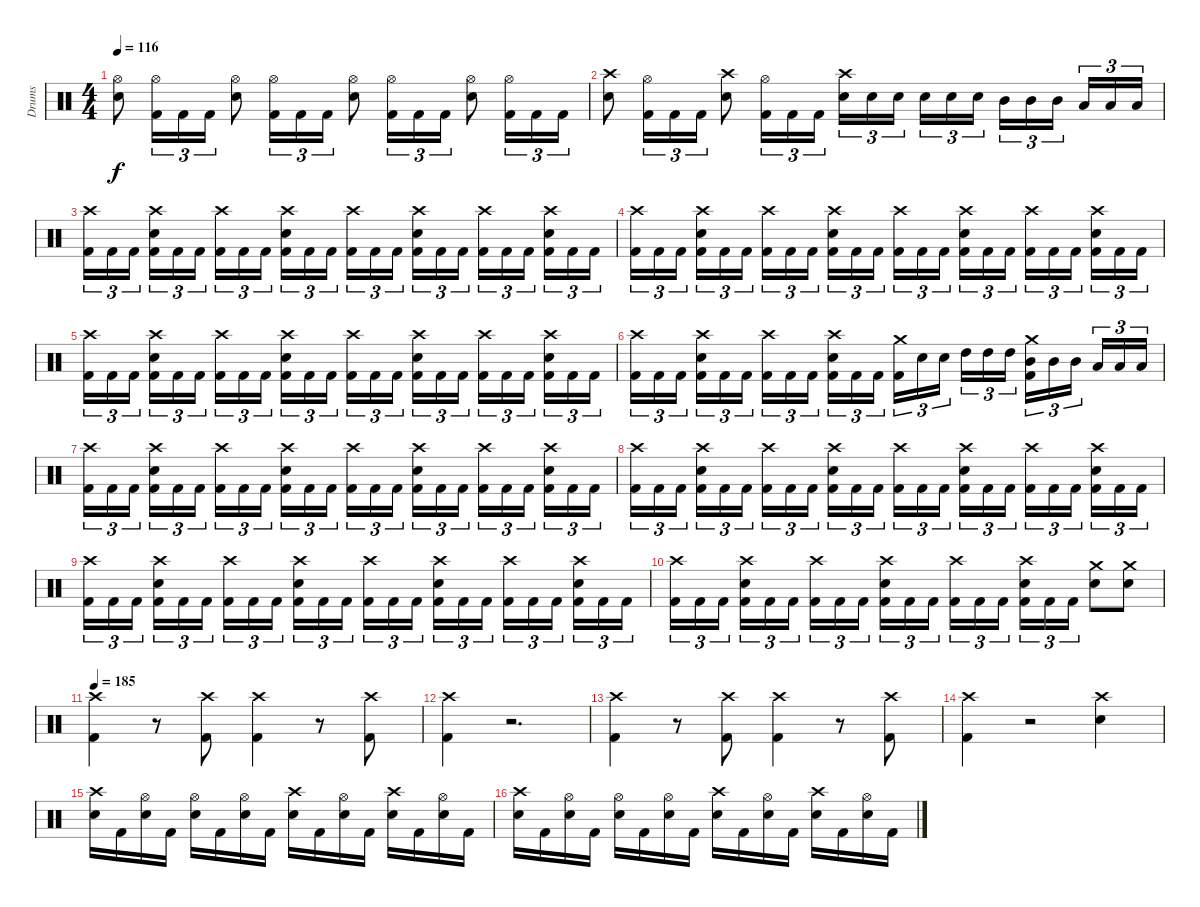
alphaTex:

\track ("Drums" "Drums") {instrument percussion}
\staff {score}
\articulation defaults
\ts (4 4)
\tempo 116
\clef neutral
\ks c
("Hi-Hat (open)" "Electric Snare (hit)").8{dy f} ("Hi-Hat (open)" "Kick (hit) 2").16{tu (3 2)} "Kick (hit) 2".16{tu (3 2)} "Kick (hit) 2".16{tu (3 2)} ("Hi-Hat (open)" "Electric Snare (hit)").8 ("Hi-Hat (open)" "Kick (hit) 2").16{tu (3 2)} "Kick (hit) 2".16{tu (3 2)} "Kick (hit) 2".16{tu (3 2)} ("Hi-Hat (open)" "Electric Snare (hit)").8 ("Hi-Hat (open)" "Kick (hit) 2").16{tu (3 2)} "Kick (hit) 2".16{tu (3 2)} "Kick (hit) 2".16{tu (3 2)} ("Hi-Hat (open)" "Electric Snare (hit)").8 ("Hi-Hat (open)" "Kick (hit) 2").16{tu (3 2)} "Kick (hit) 2".16{tu (3 2)} "Kick (hit) 2".16{tu (3 2)} |
("Crash high (hit)" "Electric Snare (hit)").8 ("Hi-Hat (open)" "Kick (hit) 2").16{tu (3 2)} "Kick (hit) 2".16{tu (3 2)} "Kick (hit) 2".16{tu (3 2)} ("Crash high (hit)" "Electric Snare (hit)").8 ("Hi-Hat (open)" "Kick (hit) 2").16{tu (3 2)} "Kick (hit) 2".16{tu (3 2)} "Kick (hit) 2".16{tu (3 2)} ("Crash high (hit)" "Electric Snare (hit)").16{tu (3 2)} "Electric Snare (hit)".16{tu (3 2)} "Electric Snare (hit)".16{tu (3 2)} "Electric Snare (hit)".16{tu (3 2)} "Electric Snare (hit)".16{tu (3 2)} "Electric Snare (hit)".16{tu (3 2)} "Mid Tom (hit)".16{tu (3 2)} "Mid Tom (hit)".16{tu (3 2)} "Mid Tom (hit)".16{tu (3 2)} "Low Tom (hit)".16{tu (3 2)} "Low Tom (hit)".16{tu (3 2)} "Low Tom (hit)".16{tu (3 2)} |
("Crash high (hit)" "Kick (hit) 2").16{tu (3 2)} "Kick (hit) 2".16{tu (3 2)} "Kick (hit) 2".16{tu (3 2)} ("Crash high (hit)" "Electric Snare (hit)" "Kick (hit) 2").16{tu (3 2)} "Kick (hit) 2".16{tu (3 2)} "Kick (hit) 2".16{tu (3 2)} ("Crash high (hit)" "Kick (hit) 2").16{tu (3 2)} "Kick (hit) 2".16{tu (3 2)} "Kick (hit) 2".16{tu (3 2)} ("Crash high (hit)" "Electric Snare (hit)" "Kick (hit) 2").16{tu (3 2)} "Kick (hit) 2".16{tu (3 2)} "Kick (hit) 2".16{tu (3 2)} ("Crash high (hit)" "Kick (hit) 2").16{tu (3 2)} "Kick (hit) 2".16{tu (3 2)} "Kick (hit) 2".16{tu (3 2)} ("Crash high (hit)" "Electric Snare (hit)" "Kick (hit) 2").16{tu (3 2)} "Kick (hit) 2".16{tu (3 2)} "Kick (hit) 2".16{tu (3 2)} ("Crash high (hit)" "Kick (hit) 2").16{tu (3 2)} "Kick (hit) 2".16{tu (3 2)} "Kick (hit) 2".16{tu (3 2)} ("Crash high (hit)" "Electric Snare (hit)" "Kick (hit) 2").16{tu (3 2)} "Kick (hit) 2".16{tu (3 2)} "Kick (hit) 2".16{tu (3 2)} |
("Crash high (hit)" "Kick (hit) 2").16{tu (3 2)} "Kick (hit) 2".16{tu (3 2)} "Kick (hit) 2".16{tu (3 2)} ("Crash high (hit)" "Electric Snare (hit)" "Kick (hit) 2").16{tu (3 2)} "Kick (hit) 2".16{tu (3 2)} "Kick (hit) 2".16{tu (3 2)} ("Crash high (hit)" "Kick (hit) 2").16{tu (3 2)} "Kick (hit) 2".16{tu (3 2)} "Kick (hit) 2".16{tu (3 2)} ("Crash high (hit)" "Electric Snare (hit)" "Kick (hit) 2").16{tu (3 2)} "Kick (hit) 2".16{tu (3 2)} "Kick (hit) 2".16{tu (3 2)} ("Crash high (hit)" "Kick (hit) 2").16{tu (3 2)} "Kick (hit) 2".16{tu (3 2)} "Kick (hit) 2".16{tu (3 2)} ("Crash high (hit)" "Electric Snare (hit)" "Kick (hit) 2").16{tu (3 2)} "Kick (hit) 2".16{tu (3 2)} "Kick (hit) 2".16{tu (3 2)} ("Crash high (hit)" "Kick (hit) 2").16{tu (3 2)} "Kick (hit) 2".16{tu (3 2)} "Kick (hit) 2".16{tu (3 2)} ("Crash high (hit)" "Electric Snare (hit)" "Kick (hit) 2").16{tu (3 2)} "Kick (hit) 2".16{tu (3 2)} "Kick (hit) 2".16{tu (3 2)} |
("Crash high (hit)" "Kick (hit) 2").16{tu (3 2)} "Kick (hit) 2".16{tu (3 2)} "Kick (hit) 2".16{tu (3 2)} ("Crash high (hit)" "Electric Snare (hit)" "Kick (hit) 2").16{tu (3 2)} "Kick (hit) 2".16{tu (3 2)} "Kick (hit) 2".16{tu (3 2)} ("Crash high (hit)" "Kick (hit) 2").16{tu (3 2)} "Kick (hit) 2".16{tu (3 2)} "Kick (hit) 2".16{tu (3 2)} ("Crash high (hit)" "Electric Snare (hit)" "Kick (hit) 2").16{tu (3 2)} "Kick (hit) 2".16{tu (3 2)} "Kick (hit) 2".16{tu (3 2)} ("Crash high (hit)" "Kick (hit) 2").16{tu (3 2)} "Kick (hit) 2".16{tu (3 2)} "Kick (hit) 2".16{tu (3 2)} ("Crash high (hit)" "Electric Snare (hit)" "Kick (hit) 2").16{tu (3 2)} "Kick (hit) 2".16{tu (3 2)} "Kick (hit) 2".16{tu (3 2)} ("Crash high (hit)" "Kick (hit) 2").16{tu (3 2)} "Kick (hit) 2".16{tu (3 2)} "Kick (hit) 2".16{tu (3 2)} ("Crash high (hit)" "Electric Snare (hit)" "Kick (hit) 2").16{tu (3 2)} "Kick (hit) 2".16{tu (3 2)} "Kick (hit) 2".16{tu (3 2)} |
("Crash high (hit)" "Kick (hit) 2").16{tu (3 2)} "Kick (hit) 2".16{tu (3 2)} "Kick (hit) 2".16{tu (3 2)} ("Crash high (hit)" "Electric Snare (hit)" "Kick (hit) 2").16{tu (3 2)} "Kick (hit) 2".16{tu (3 2)} "Kick (hit) 2".16{tu (3 2)} ("Crash high (hit)" "Kick (hit) 2").16{tu (3 2)} "Kick (hit) 2".16{tu (3 2)} "Kick (hit) 2".16{tu (3 2)} ("Crash high (hit)" "Electric Snare (hit)" "Kick (hit) 2").16{tu (3 2)} "Kick (hit) 2".16{tu (3 2)} "Kick (hit) 2".16{tu (3 2)} ("Crash medium (hit)" "Kick (hit) 2").16{tu (3 2)} "Electric Snare (hit)".16{tu (3 2)} "Electric Snare (hit)".16{tu (3 2)} "High Tom (hit)".16{tu (3 2)} "High Tom (hit)".16{tu (3 2)} "High Tom (hit)".16{tu (3 2)} ("Crash medium (hit)" "Mid Tom (hit)" "Kick (hit) 2").16{tu (3 2)} "Mid Tom (hit)".16{tu (3 2)} "Mid Tom (hit)".16{tu (3 2)} "Low Tom (hit)".16{tu (3 2)} "Low Tom (hit)".16{tu (3 2)} "Low Tom (hit)".16{tu (3 2)} |
("Crash high (hit)" "Kick (hit) 2").16{tu (3 2)} "Kick (hit) 2".16{tu (3 2)} "Kick (hit) 2".16{tu (3 2)} ("Crash high (hit)" "Electric Snare (hit)" "Kick (hit) 2").16{tu (3 2)} "Kick (hit) 2".16{tu (3 2)} "Kick (hit) 2".16{tu (3 2)} ("Crash high (hit)" "Kick (hit) 2").16{tu (3 2)} "Kick (hit) 2".16{tu (3 2)} "Kick (hit) 2".16{tu (3 2)} ("Crash high (hit)" "Electric Snare (hit)" "Kick (hit) 2").16{tu (3 2)} "Kick (hit) 2".16{tu (3 2)} "Kick (hit) 2".16{tu (3 2)} ("Crash high (hit)" "Kick (hit) 2").16{tu (3 2)} "Kick (hit) 2".16{tu (3 2)} "Kick (hit) 2".16{tu (3 2)} ("Crash high (hit)" "Electric Snare (hit)" "Kick (hit) 2").16{tu (3 2)} "Kick (hit) 2".16{tu (3 2)} "Kick (hit) 2".16{tu (3 2)} ("Crash high (hit)" "Kick (hit) 2").16{tu (3 2)} "Kick (hit) 2".16{tu (3 2)} "Kick (hit) 2".16{tu (3 2)} ("Crash high (hit)" "Electric Snare (hit)" "Kick (hit) 2").16{tu (3 2)} "Kick (hit) 2".16{tu (3 2)} "Kick (hit) 2".16{tu (3 2)} |
("Crash high (hit)" "Kick (hit) 2").16{tu (3 2)} "Kick (hit) 2".16{tu (3 2)} "Kick (hit) 2".16{tu (3 2)} ("Crash high (hit)" "Electric Snare (hit)" "Kick (hit) 2").16{tu (3 2)} "Kick (hit) 2".16{tu (3 2)} "Kick (hit) 2".16{tu (3 2)} ("Crash high (hit)" "Kick (hit) 2").16{tu (3 2)} "Kick (hit) 2".16{tu (3 2)} "Kick (hit) 2".16{tu (3 2)} ("Crash high (hit)" "Electric Snare (hit)" "Kick (hit) 2").16{tu (3 2)} "Kick (hit) 2".16{tu (3 2)} "Kick (hit) 2".16{tu (3 2)} ("Crash high (hit)" "Kick (hit) 2").16{tu (3 2)} "Kick (hit) 2".16{tu (3 2)} "Kick (hit) 2".16{tu (3 2)} ("Crash high (hit)" "Electric Snare (hit)" "Kick (hit) 2").16{tu (3 2)} "Kick (hit) 2".16{tu (3 2)} "Kick (hit) 2".16{tu (3 2)} ("Crash high (hit)" "Kick (hit) 2").16{tu (3 2)} "Kick (hit) 2".16{tu (3 2)} "Kick (hit) 2".16{tu (3 2)} ("Crash high (hit)" "Electric Snare (hit)" "Kick (hit) 2").16{tu (3 2)} "Kick (hit) 2".16{tu (3 2)} "Kick (hit) 2".16{tu (3 2)} |
("Crash high (hit)" "Kick (hit) 2").16{tu (3 2)} "Kick (hit) 2".16{tu (3 2)} "Kick (hit) 2".16{tu (3 2)} ("Crash high (hit)" "Electric Snare (hit)" "Kick (hit) 2").16{tu (3 2)} "Kick (hit) 2".16{tu (3 2)} "Kick (hit) 2".16{tu (3 2)} ("Crash high (hit)" "Kick (hit) 2").16{tu (3 2)} "Kick (hit) 2".16{tu (3 2)} "Kick (hit) 2".16{tu (3 2)} ("Crash high (hit)" "Electric Snare (hit)" "Kick (hit) 2").16{tu (3 2)} "Kick (hit) 2".16{tu (3 2)} "Kick (hit) 2".16{tu (3 2)} ("Crash high (hit)" "Kick (hit) 2").16{tu (3 2)} "Kick (hit) 2".16{tu (3 2)} "Kick (hit) 2".16{tu (3 2)} ("Crash high (hit)" "Electric Snare (hit)" "Kick (hit) 2").16{tu (3 2)} "Kick (hit) 2".16{tu (3 2)} "Kick (hit) 2".16{tu (3 2)} ("Crash high (hit)" "Kick (hit) 2").16{tu (3 2)} "Kick (hit) 2".16{tu (3 2)} "Kick (hit) 2".16{tu (3 2)} ("Crash high (hit)" "Electric Snare (hit)" "Kick (hit) 2").16{tu (3 2)} "Kick (hit) 2".16{tu (3 2)} "Kick (hit) 2".16{tu (3 2)} |
("Crash high (hit)" "Kick (hit) 2").16{tu (3 2)} "Kick (hit) 2".16{tu (3 2)} "Kick (hit) 2".16{tu (3 2)} ("Crash high (hit)" "Electric Snare (hit)" "Kick (hit) 2").16{tu (3 2)} "Kick (hit) 2".16{tu (3 2)} "Kick (hit) 2".16{tu (3 2)} ("Crash high (hit)" "Kick (hit) 2").16{tu (3 2)} "Kick (hit) 2".16{tu (3 2)} "Kick (hit) 2".16{tu (3 2)} ("Crash high (hit)" "Electric Snare (hit)" "Kick (hit) 2").16{tu (3 2)} "Kick (hit) 2".16{tu (3 2)} "Kick (hit) 2".16{tu (3 2)} ("Crash high (hit)" "Kick (hit) 2").16{tu (3 2)} "Kick (hit) 2".16{tu (3 2)} "Kick (hit) 2".16{tu (3 2)} ("Crash high (hit)" "Electric Snare (hit)" "Kick (hit) 2").16{tu (3 2)} "Kick (hit) 2".16{tu (3 2)} "Kick (hit) 2".16{tu (3 2)} ("Crash medium (hit)" "Electric Snare (hit)").8 ("Crash medium (hit)" "Electric Snare (hit)").8 |
\tempo 185
("Crash high (hit)" "Kick (hit) 2").4 r.8 ("Crash high (hit)" "Kick (hit) 2").8 ("Crash high (hit)" "Kick (hit) 2").4 r.8 ("Crash high (hit)" "Kick (hit) 2").8 |
("Crash high (hit)" "Kick (hit) 2").4 r.2{d} |
("Crash high (hit)" "Kick (hit) 2").4 r.8 ("Crash high (hit)" "Kick (hit) 2").8 ("Crash high (hit)" "Kick (hit) 2").4 r.8 ("Crash high (hit)" "Kick (hit) 2").8 |
("Crash high (hit)" "Kick (hit) 2").4 r.2 ("Crash high (hit)" "Electric Snare (hit)").4 |
("Crash high (hit)" "Electric Snare (hit)").16 "Kick (hit) 2".16 ("Hi-Hat (open)" "Electric Snare (hit)").16 "Kick (hit) 2".16 ("Hi-Hat (open)" "Electric Snare (hit)").16 "Kick (hit) 2".16 ("Hi-Hat (open)" "Electric Snare (hit)").16 "Kick (hit) 2".16 ("Crash high (hit)" "Electric Snare (hit)").16 "Kick (hit) 2".16 ("Hi-Hat (open)" "Electric Snare (hit)").16 "Kick (hit) 2".16 ("Crash high (hit)" "Electric Snare (hit)").16 "Kick (hit) 2".16 ("Hi-Hat (open)" "Electric Snare (hit)").16 "Kick (hit) 2".16 |
("Crash high (hit)" "Electric Snare (hit)").16 "Kick (hit) 2".16 ("Hi-Hat (open)" "Electric Snare (hit)").16 "Kick (hit) 2".16 ("Hi-Hat (open)" "Electric Snare (hit)").16 "Kick (hit) 2".16 ("Hi-Hat (open)" "Electric Snare (hit)").16 "Kick (hit) 2".16 ("Crash high (hit)" "Electric Snare (hit)").16 "Kick (hit) 2".16 ("Hi-Hat (open)" "Electric Snare (hit)").16 "Kick (hit) 2".16 ("Crash high (hit)" "Electric Snare (hit)").16 "Kick (hit) 2".16 ("Hi-Hat (open)" "Electric Snare (hit)").16 "Kick (hit) 2".16
